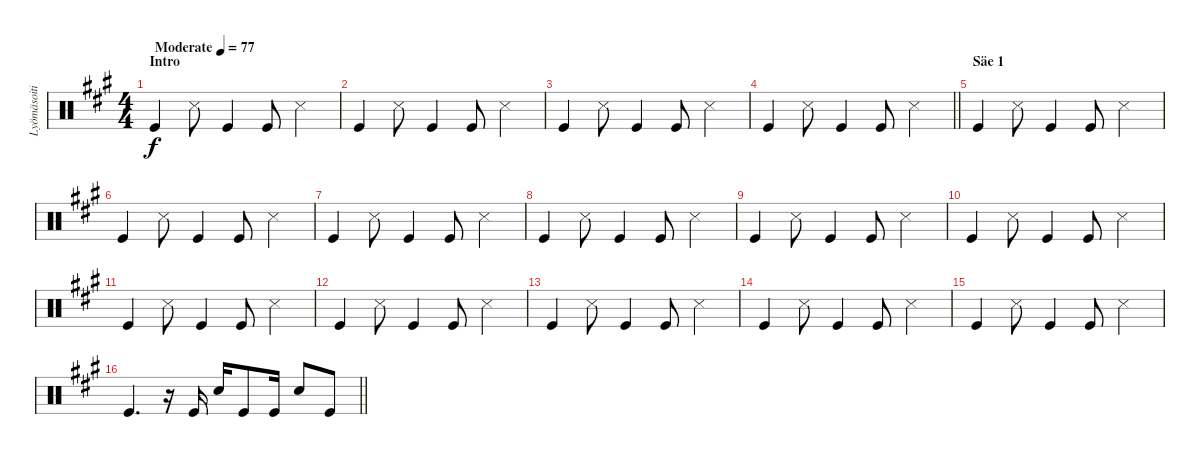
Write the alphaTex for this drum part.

\track ("Lyömäsoitin" "Lyömäsoiti") {instrument percussion}
\staff {score}
\articulation defaults
\ts (4 4)
\section ("" "Intro")
\tempo (77 "Moderate")
\clef neutral
\ks a "Kick (hit)".4{dy f} "Snare (side stick) 3".8 "Kick (hit)".4 "Kick (hit)".8 "Snare (side stick) 3".4
|
"Kick (hit)".4 "Snare (side stick) 3".8 "Kick (hit)".4 "Kick (hit)".8 "Snare (side stick) 3".4 |
"Kick (hit)".4 "Snare (side stick) 3".8 "Kick (hit)".4 "Kick (hit)".8 "Snare (side stick) 3".4 |
\barLineRight lightlight "Kick (hit)".4 "Snare (side stick) 3".8 "Kick (hit)".4 "Kick (hit)".8 "Snare (side stick) 3".4
|
\section ("" "Säe 1")
"Kick (hit)".4 "Snare (side stick) 3".8 "Kick (hit)".4 "Kick (hit)".8 "Snare (side stick) 3".4 |
"Kick (hit)".4 "Snare (side stick) 3".8 "Kick (hit)".4 "Kick (hit)".8 "Snare (side stick) 3".4 |
"Kick (hit)".4 "Snare (side stick) 3".8 "Kick (hit)".4 "Kick (hit)".8 "Snare (side stick) 3".4 |
"Kick (hit)".4 "Snare (side stick) 3".8 "Kick (hit)".4 "Kick (hit)".8 "Snare (side stick) 3".4 |
"Kick (hit)".4 "Snare (side stick) 3".8 "Kick (hit)".4 "Kick (hit)".8 "Snare (side stick) 3".4 |
"Kick (hit)".4 "Snare (side stick) 3".8 "Kick (hit)".4 "Kick (hit)".8 "Snare (side stick) 3".4 |
"Kick (hit)".4 "Snare (side stick) 3".8 "Kick (hit)".4 "Kick (hit)".8 "Snare (side stick) 3".4 |
"Kick (hit)".4 "Snare (side stick) 3".8 "Kick (hit)".4 "Kick (hit)".8 "Snare (side stick) 3".4 |
"Kick (hit)".4 "Snare (side stick) 3".8 "Kick (hit)".4 "Kick (hit)".8 "Snare (side stick) 3".4 |
"Kick (hit)".4 "Snare (side stick) 3".8 "Kick (hit)".4 "Kick (hit)".8 "Snare (side stick) 3".4 |
"Kick (hit)".4 "Snare (side stick) 3".8 "Kick (hit)".4 "Kick (hit)".8 "Snare (side stick) 3".4 |
\barLineRight lightlight "Kick (hit)".4{d}
r.16 "Kick (hit)".16 "Snare (hit) 2".16 "Kick (hit)".8 "Kick (hit)".16 "Snare (hit) 2".8 "Kick (hit)".8
